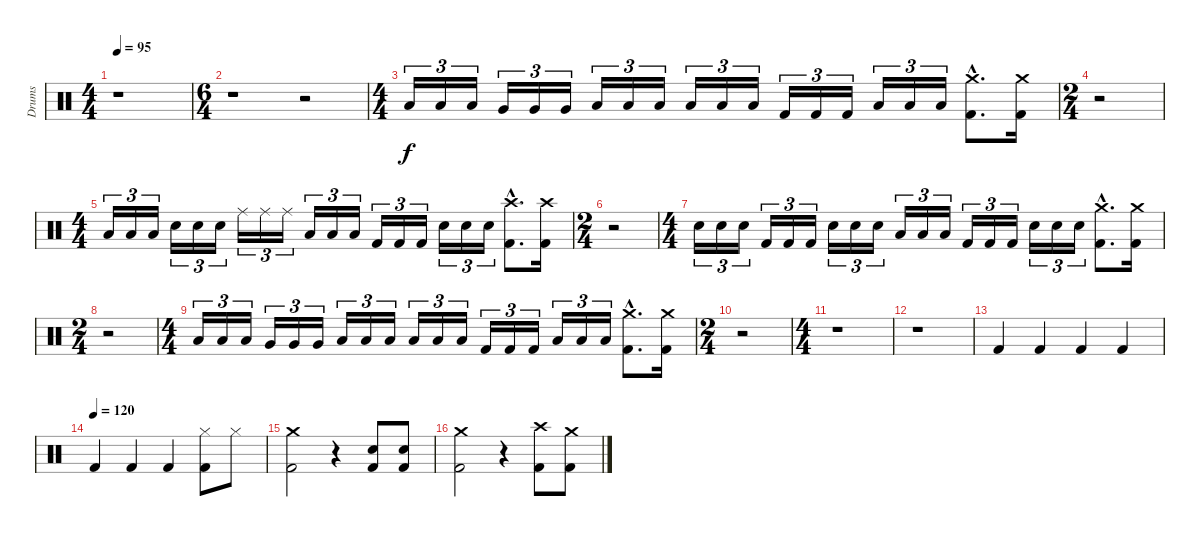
\track ("Drums" "Drums") {instrument percussion}
\staff {score}
\articulation defaults
\ts (4 4)
\tempo 95
\clef neutral
\ks c
r.1{dy f} |
\ts (6 4)
r.1 r.2 |
\ts (4 4)
"Low Tom (hit)".16{tu (3 2)} "Low Tom (hit)".16{tu (3 2)} "Low Tom (hit)".16{tu (3 2)} "Very Low Tom (hit)".16{tu (3 2)} "Very Low Tom (hit)".16{tu (3 2)} "Very Low Tom (hit)".16{tu (3 2)} "Low Tom (hit)".16{tu (3 2)} "Low Tom (hit)".16{tu (3 2)} "Low Tom (hit)".16{tu (3 2)} "Low Floor Tom (hit)".16{tu (3 2)} "Low Floor Tom (hit)".16{tu (3 2)} "Low Floor Tom (hit)".16{tu (3 2)} "Kick (hit) 2".16{tu (3 2)} "Kick (hit) 2".16{tu (3 2)} "Kick (hit) 2".16{tu (3 2)} "Low Tom (hit)".16{tu (3 2)} "Low Tom (hit)".16{tu (3 2)} "Low Tom (hit)".16{tu (3 2)} ("Crash medium (hit)"{hac} "Kick (hit) 2"{hac}).8{d} ("Crash medium (hit)" "Kick (hit) 2").16 |
\ts (2 4)
r.2 |
\ts (4 4)
"Low Tom (hit)".16{tu (3 2)} "Low Tom (hit)".16{tu (3 2)} "Low Tom (hit)".16{tu (3 2)} "Electric Snare (hit)".16{tu (3 2)} "Electric Snare (hit)".16{tu (3 2)} "Electric Snare (hit)".16{tu (3 2)} "Ride (middle)".16{tu (3 2)} "Ride (middle)".16{tu (3 2)} "Ride (middle)".16{tu (3 2)} "Low Floor Tom (hit)".16{tu (3 2)} "Low Floor Tom (hit)".16{tu (3 2)} "Low Floor Tom (hit)".16{tu (3 2)} "Kick (hit) 2".16{tu (3 2)} "Kick (hit) 2".16{tu (3 2)} "Kick (hit) 2".16{tu (3 2)} "Electric Snare (hit)".16{tu (3 2)} "Electric Snare (hit)".16{tu (3 2)} "Electric Snare (hit)".16{tu (3 2)} ("Crash high (hit)"{hac} "Kick (hit) 2"{hac}).8{d} ("Crash high (hit)" "Kick (hit) 2").16 |
\ts (2 4)
r.2 |
\ts (4 4)
"Electric Snare (hit)".16{tu (3 2)} "Electric Snare (hit)".16{tu (3 2)} "Electric Snare (hit)".16{tu (3 2)} "Kick (hit) 2".16{tu (3 2)} "Kick (hit) 2".16{tu (3 2)} "Kick (hit) 2".16{tu (3 2)} "Electric Snare (hit)".16{tu (3 2)} "Electric Snare (hit)".16{tu (3 2)} "Electric Snare (hit)".16{tu (3 2)} "Low Floor Tom (hit)".16{tu (3 2)} "Low Floor Tom (hit)".16{tu (3 2)} "Low Floor Tom (hit)".16{tu (3 2)} "Kick (hit) 2".16{tu (3 2)} "Kick (hit) 2".16{tu (3 2)} "Kick (hit) 2".16{tu (3 2)} "Electric Snare (hit)".16{tu (3 2)} "Electric Snare (hit)".16{tu (3 2)} "Electric Snare (hit)".16{tu (3 2)} ("Crash medium (hit)"{hac} "Kick (hit) 2"{hac}).8{d} ("Crash medium (hit)" "Kick (hit) 2").16 |
\ts (2 4)
r.2 |
\ts (4 4)
"Low Tom (hit)".16{tu (3 2)} "Low Tom (hit)".16{tu (3 2)} "Low Tom (hit)".16{tu (3 2)} "Very Low Tom (hit)".16{tu (3 2)} "Very Low Tom (hit)".16{tu (3 2)} "Very Low Tom (hit)".16{tu (3 2)} "Low Tom (hit)".16{tu (3 2)} "Low Tom (hit)".16{tu (3 2)} "Low Tom (hit)".16{tu (3 2)} "Low Floor Tom (hit)".16{tu (3 2)} "Low Floor Tom (hit)".16{tu (3 2)} "Low Floor Tom (hit)".16{tu (3 2)} "Kick (hit) 2".16{tu (3 2)} "Kick (hit) 2".16{tu (3 2)} "Kick (hit) 2".16{tu (3 2)} "Low Tom (hit)".16{tu (3 2)} "Low Tom (hit)".16{tu (3 2)} "Low Tom (hit)".16{tu (3 2)} ("Crash medium (hit)"{hac} "Kick (hit) 2"{hac}).8{d} ("Crash medium (hit)" "Kick (hit) 2").16 |
\ts (2 4)
r.2 |
\ts (4 4)
r.1 |
r.1 |
"Kick (hit) 2".4 "Kick (hit) 2".4 "Kick (hit) 2".4 "Kick (hit) 2".4 |
\tempo (120)
"Kick (hit) 2".4 "Kick (hit) 2".4 "Kick (hit) 2".4 ("Hi-Hat (closed)" "Kick (hit) 2").8 "Hi-Hat (closed)".8 |
("Crash medium (hit)" "Kick (hit) 2").2 r.4 ("Electric Snare (hit)" "Kick (hit) 2").8 ("Electric Snare (hit)" "Kick (hit) 2").8 |
("Crash medium (hit)" "Kick (hit) 2").2 r.4 ("Crash high (hit)" "Kick (hit) 2").8 ("Crash medium (hit)" "Kick (hit) 2").8
